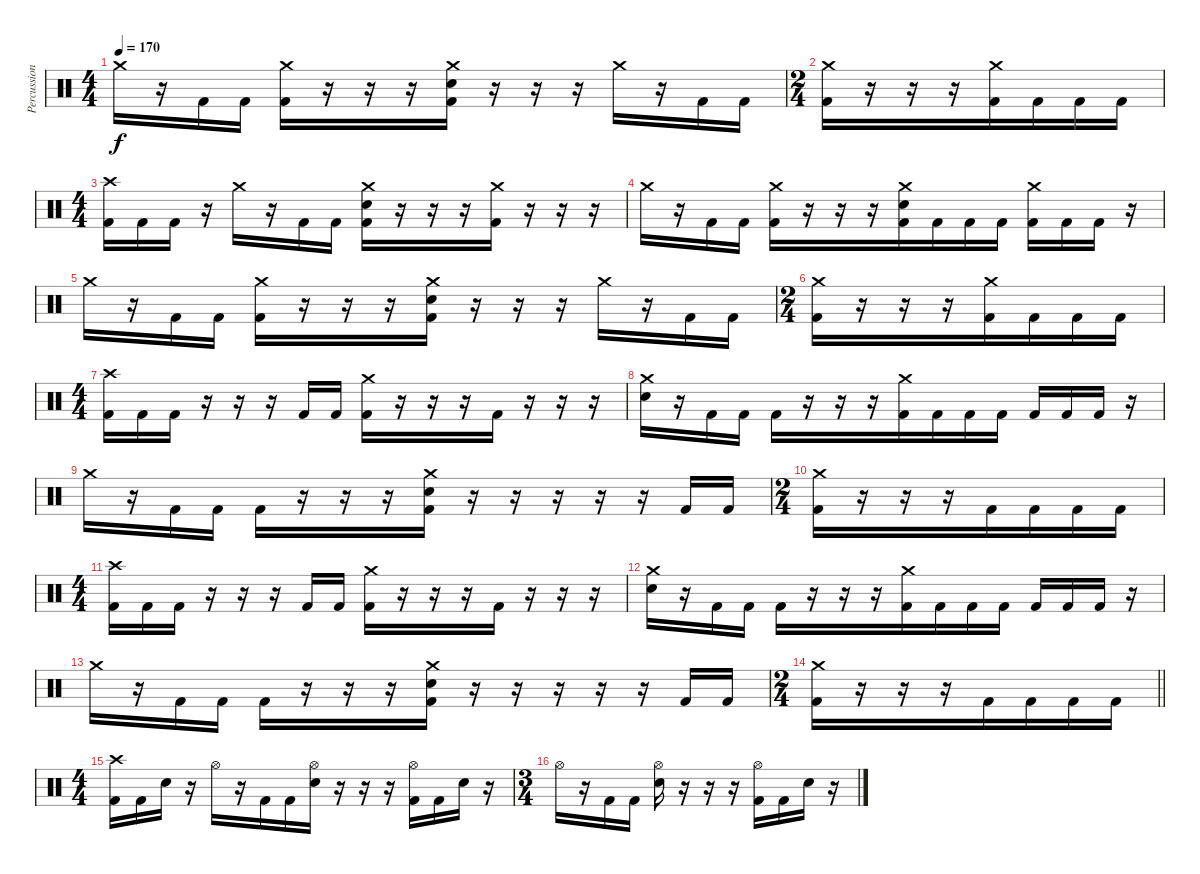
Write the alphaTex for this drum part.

\track ("Percussion" "Percussion") {instrument percussion}
\staff {score}
\articulation defaults
\ts (4 4)
\tempo 170
\clef neutral
\ks c "Crash medium (hit)".16{dy f}
r.16 "Kick (hit) 2".16 "Kick (hit) 2".16 ("Crash medium (hit)" "Kick (hit) 2").16{beam merge} r.16 r.16{beam merge} r.16 ("Crash medium (hit)" "Electric Snare (hit)" "Kick (hit) 2").16 r.16{beam merge} r.16{beam merge} r.16 "Crash medium (hit)".16 r.16 "Kick (hit) 2".16 "Kick (hit) 2".16 |
\ts (2 4)
("Crash medium (hit)" "Kick (hit) 2").16{beam merge} r.16 r.16 r.16 ("Crash medium (hit)" "Kick (hit) 2").16 "Kick (hit) 2".16 "Kick (hit) 2".16{beam merge} "Kick (hit) 2".16 |
\ts (4 4)
("Crash high (hit)" "Kick (hit) 2").16{beam merge} "Kick (hit) 2".16 "Kick (hit) 2".16 r.16 "Crash medium (hit)".16 r.16 "Kick (hit) 2".16{beam merge} "Kick (hit) 2".16 ("Crash medium (hit)" "Electric Snare (hit)" "Kick (hit) 2").16{beam merge} r.16 r.16 r.16{beam merge} ("Crash medium (hit)" "Kick (hit) 2").16{beam merge} r.16{beam merge} r.16{beam merge} r.16 |
"Crash medium (hit)".16 r.16{beam merge} "Kick (hit) 2".16 "Kick (hit) 2".16 ("Crash medium (hit)" "Kick (hit) 2").16{beam merge} r.16 r.16 r.16 ("Crash medium (hit)" "Electric Snare (hit)" "Kick (hit) 2").16{beam merge} "Kick (hit) 2".16{beam merge} "Kick (hit) 2".16{beam merge} "Kick (hit) 2".16 ("Crash medium (hit)" "Kick (hit) 2").16{beam merge} "Kick (hit) 2".16{beam merge} "Kick (hit) 2".16 r.16 |
"Crash medium (hit)".16 r.16 "Kick (hit) 2".16 "Kick (hit) 2".16 ("Crash medium (hit)" "Kick (hit) 2").16{beam merge} r.16 r.16{beam merge} r.16 ("Crash medium (hit)" "Electric Snare (hit)" "Kick (hit) 2").16 r.16{beam merge} r.16{beam merge} r.16 "Crash medium (hit)".16 r.16 "Kick (hit) 2".16 "Kick (hit) 2".16 |
\ts (2 4)
("Crash medium (hit)" "Kick (hit) 2").16{beam merge} r.16 r.16 r.16 ("Crash medium (hit)" "Kick (hit) 2").16 "Kick (hit) 2".16 "Kick (hit) 2".16{beam merge} "Kick (hit) 2".16 |
\ts (4 4)
("Crash high (hit)" "Kick (hit) 2").16{beam merge} "Kick (hit) 2".16 "Kick (hit) 2".16 r.16 r.16 r.16 "Kick (hit) 2".16{beam merge} "Kick (hit) 2".16 ("Crash medium (hit)" "Kick (hit) 2").16{beam merge} r.16 r.16 r.16{beam merge} "Kick (hit) 2".16{beam merge} r.16{beam merge} r.16{beam merge} r.16 |
("Crash medium (hit)" "Electric Snare (hit)").16 r.16{beam merge} "Kick (hit) 2".16 "Kick (hit) 2".16 "Kick (hit) 2".16{beam merge} r.16 r.16 r.16 ("Crash medium (hit)" "Kick (hit) 2").16{beam merge} "Kick (hit) 2".16{beam merge} "Kick (hit) 2".16{beam merge} "Kick (hit) 2".16 "Kick (hit) 2".16{beam merge} "Kick (hit) 2".16{beam merge} "Kick (hit) 2".16 r.16 |
"Crash medium (hit)".16 r.16 "Kick (hit) 2".16 "Kick (hit) 2".16 "Kick (hit) 2".16{beam merge} r.16 r.16{beam merge} r.16 ("Crash medium (hit)" "Electric Snare (hit)" "Kick (hit) 2").16 r.16{beam merge} r.16{beam merge} r.16 r.16 r.16 "Kick (hit) 2".16 "Kick (hit) 2".16 |
\ts (2 4)
("Crash medium (hit)" "Kick (hit) 2").16{beam merge} r.16 r.16 r.16 "Kick (hit) 2".16 "Kick (hit) 2".16 "Kick (hit) 2".16{beam merge} "Kick (hit) 2".16 |
\ts (4 4)
("Crash high (hit)" "Kick (hit) 2").16{beam merge} "Kick (hit) 2".16 "Kick (hit) 2".16 r.16 r.16 r.16 "Kick (hit) 2".16{beam merge} "Kick (hit) 2".16 ("Crash medium (hit)" "Kick (hit) 2").16{beam merge} r.16 r.16 r.16{beam merge} "Kick (hit) 2".16{beam merge} r.16{beam merge} r.16{beam merge} r.16 |
("Crash medium (hit)" "Electric Snare (hit)").16 r.16{beam merge} "Kick (hit) 2".16 "Kick (hit) 2".16 "Kick (hit) 2".16{beam merge} r.16 r.16 r.16 ("Crash medium (hit)" "Kick (hit) 2").16{beam merge} "Kick (hit) 2".16{beam merge} "Kick (hit) 2".16{beam merge} "Kick (hit) 2".16 "Kick (hit) 2".16{beam merge} "Kick (hit) 2".16{beam merge} "Kick (hit) 2".16 r.16 |
"Crash medium (hit)".16 r.16 "Kick (hit) 2".16 "Kick (hit) 2".16 "Kick (hit) 2".16{beam merge} r.16 r.16{beam merge} r.16 ("Crash medium (hit)" "Electric Snare (hit)" "Kick (hit) 2").16 r.16{beam merge} r.16{beam merge} r.16 r.16 r.16 "Kick (hit) 2".16 "Kick (hit) 2".16 |
\ts (2 4)
\barLineRight lightlight
("Crash medium (hit)" "Kick (hit) 2").16{beam merge} r.16 r.16 r.16 "Kick (hit) 2".16 "Kick (hit) 2".16 "Kick (hit) 2".16{beam merge} "Kick (hit) 2".16 |
\ts (4 4)
\section ("" "")
("Crash high (hit)" "Kick (hit) 2").16 "Kick (hit) 2".16 "Electric Snare (hit)".16 r.16 "Hi-Hat (open)".16 r.16 "Kick (hit) 2".16 "Kick (hit) 2".16{beam merge} ("Hi-Hat (open)" "Electric Snare (hit)").16 r.16{beam merge} r.16 r.16{beam merge} ("Hi-Hat (open)" "Kick (hit) 2").16{beam merge} "Kick (hit) 2".16{beam merge} "Electric Snare (hit)".16 r.16 |
\ts (3 4)
"Hi-Hat (open)".16 r.16 "Kick (hit) 2".16 "Kick (hit) 2".16 ("Hi-Hat (open)" "Electric Snare (hit)").16 r.16 r.16 r.16{beam merge} ("Hi-Hat (open)" "Kick (hit) 2").16 "Kick (hit) 2".16 "Electric Snare (hit)".16{beam merge} r.16
